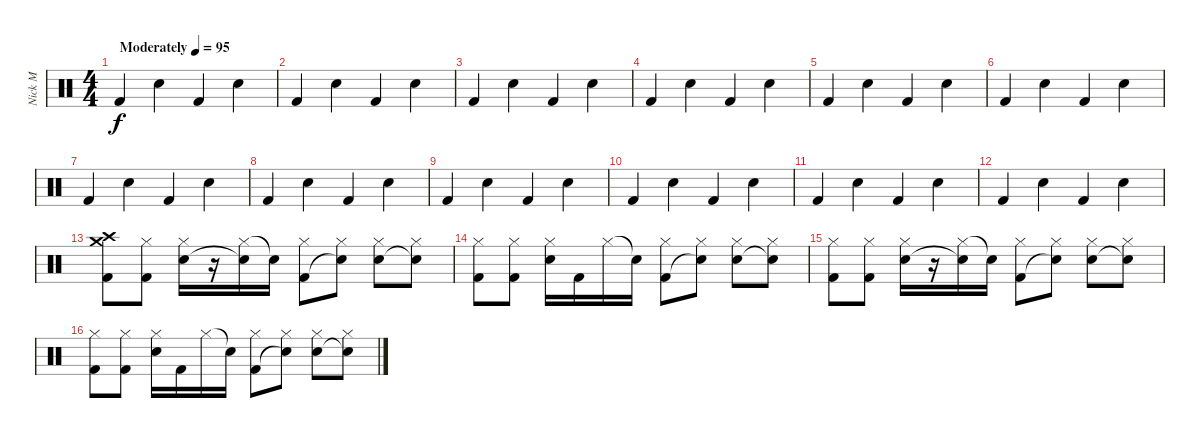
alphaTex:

\track ("Nick M" "Nick M") {instrument percussion}
\staff {score}
\articulation defaults
\ts (4 4)
\tempo (95 "Moderately")
\clef neutral
\ks c "Kick (hit) 2".4{dy f} "Snare (hit) 2".4 "Kick (hit) 2".4 "Snare (hit) 2".4
|
"Kick (hit) 2".4 "Snare (hit) 2".4 "Kick (hit) 2".4 "Snare (hit) 2".4 |
"Kick (hit) 2".4 "Snare (hit) 2".4 "Kick (hit) 2".4 "Snare (hit) 2".4 |
"Kick (hit) 2".4 "Snare (hit) 2".4 "Kick (hit) 2".4 "Snare (hit) 2".4 |
"Kick (hit) 2".4 "Snare (hit) 2".4 "Kick (hit) 2".4 "Snare (hit) 2".4 |
"Kick (hit) 2".4 "Snare (hit) 2".4 "Kick (hit) 2".4 "Snare (hit) 2".4 |
"Kick (hit) 2".4 "Snare (hit) 2".4 "Kick (hit) 2".4 "Snare (hit) 2".4 |
"Kick (hit) 2".4 "Snare (hit) 2".4 "Kick (hit) 2".4 "Snare (hit) 2".4 |
"Kick (hit) 2".4 "Snare (hit) 2".4 "Kick (hit) 2".4 "Snare (hit) 2".4 |
"Kick (hit) 2".4 "Snare (hit) 2".4 "Kick (hit) 2".4 "Snare (hit) 2".4 |
"Kick (hit) 2".4 "Snare (hit) 2".4 "Kick (hit) 2".4 "Snare (hit) 2".4 |
"Kick (hit) 2".4 "Snare (hit) 2".4 "Kick (hit) 2".4 "Snare (hit) 2".4 |
("Crash medium (hit)" "Crash high (hit)" "Kick (hit) 2").8 ("Hi-Hat (closed)" "Kick (hit) 2").8 ("Hi-Hat (closed)" "Snare (hit) 2").16 r.16 ("Hi-Hat (closed)" "Snare (hit)"{t}).16 "Snare (hit)"{t}.16 ("Hi-Hat (closed)" "Kick (hit) 2").8 ("Hi-Hat (closed)" "Snare (hit)"{t}).8 ("Hi-Hat (closed)" "Snare (hit) 2").8 ("Hi-Hat (closed)" "Snare (hit)"{t}).8 |
("Hi-Hat (closed)" "Kick (hit) 2").8 ("Hi-Hat (closed)" "Kick (hit) 2").8 ("Hi-Hat (closed)" "Snare (hit) 2").16 "Kick (hit) 2".16 "Hi-Hat (closed)".16 "Snare (hit)"{t}.16 ("Hi-Hat (closed)" "Kick (hit) 2").8 ("Hi-Hat (closed)" "Snare (hit)"{t}).8 ("Hi-Hat (closed)" "Snare (hit) 2").8 ("Hi-Hat (closed)" "Snare (hit)"{t}).8 |
("Hi-Hat (closed)" "Kick (hit) 2").8 ("Hi-Hat (closed)" "Kick (hit) 2").8 ("Hi-Hat (closed)" "Snare (hit) 2").16 r.16 ("Hi-Hat (closed)" "Snare (hit)"{t}).16 "Snare (hit)"{t}.16 ("Hi-Hat (closed)" "Kick (hit) 2").8 ("Hi-Hat (closed)" "Snare (hit)"{t}).8 ("Hi-Hat (closed)" "Snare (hit) 2").8 ("Hi-Hat (closed)" "Snare (hit)"{t}).8 |
("Hi-Hat (closed)" "Kick (hit) 2").8 ("Hi-Hat (closed)" "Kick (hit) 2").8 ("Hi-Hat (closed)" "Snare (hit) 2").16 "Kick (hit) 2".16 "Hi-Hat (closed)".16 "Snare (hit)"{t}.16 ("Hi-Hat (closed)" "Kick (hit) 2").8 ("Hi-Hat (closed)" "Snare (hit)"{t}).8 ("Hi-Hat (closed)" "Snare (hit) 2").8 ("Hi-Hat (closed)" "Snare (hit)"{t}).8
